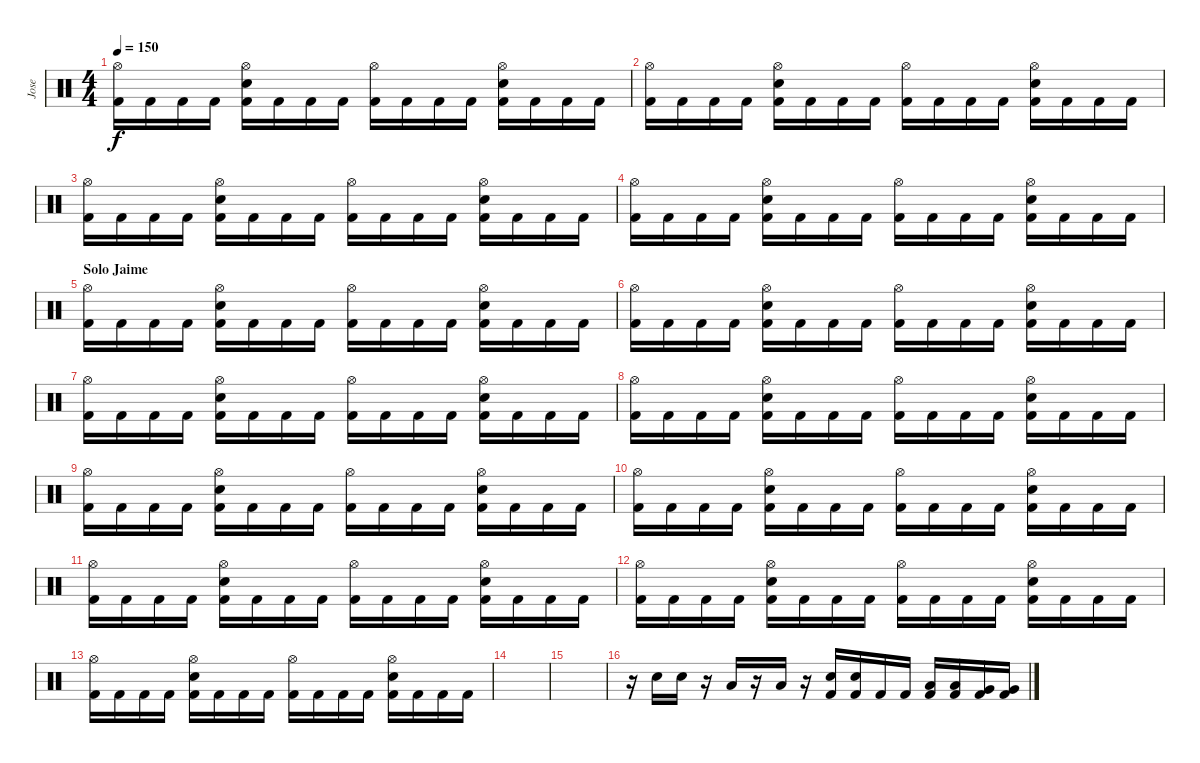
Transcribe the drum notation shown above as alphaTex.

\track ("Jose" "Jose") {instrument percussion}
\staff {score}
\articulation defaults
\ts (4 4)
\tempo 150
\clef neutral
\ks c
("Hi-Hat (open)" "Kick (hit) 2").16{dy f} "Kick (hit) 2".16 "Kick (hit) 2".16 "Kick (hit) 2".16 ("Kick (hit) 2" "Snare (hit) 2" "Hi-Hat (open)").16 "Kick (hit) 2".16 "Kick (hit) 2".16 "Kick (hit) 2".16 ("Kick (hit) 2" "Hi-Hat (open)").16 "Kick (hit) 2".16 "Kick (hit) 2".16 "Kick (hit) 2".16 ("Kick (hit) 2" "Snare (hit) 2" "Hi-Hat (open)").16 "Kick (hit) 2".16 "Kick (hit) 2".16 "Kick (hit) 2".16 |
("Hi-Hat (open)" "Kick (hit) 2").16 "Kick (hit) 2".16 "Kick (hit) 2".16 "Kick (hit) 2".16 ("Kick (hit) 2" "Snare (hit) 2" "Hi-Hat (open)").16 "Kick (hit) 2".16 "Kick (hit) 2".16 "Kick (hit) 2".16 ("Kick (hit) 2" "Hi-Hat (open)").16 "Kick (hit) 2".16 "Kick (hit) 2".16 "Kick (hit) 2".16 ("Kick (hit) 2" "Snare (hit) 2" "Hi-Hat (open)").16 "Kick (hit) 2".16 "Kick (hit) 2".16 "Kick (hit) 2".16 |
("Hi-Hat (open)" "Kick (hit) 2").16 "Kick (hit) 2".16 "Kick (hit) 2".16 "Kick (hit) 2".16 ("Kick (hit) 2" "Snare (hit) 2" "Hi-Hat (open)").16 "Kick (hit) 2".16 "Kick (hit) 2".16 "Kick (hit) 2".16 ("Kick (hit) 2" "Hi-Hat (open)").16 "Kick (hit) 2".16 "Kick (hit) 2".16 "Kick (hit) 2".16 ("Kick (hit) 2" "Snare (hit) 2" "Hi-Hat (open)").16 "Kick (hit) 2".16 "Kick (hit) 2".16 "Kick (hit) 2".16 |
("Hi-Hat (open)" "Kick (hit) 2").16 "Kick (hit) 2".16 "Kick (hit) 2".16 "Kick (hit) 2".16 ("Kick (hit) 2" "Snare (hit) 2" "Hi-Hat (open)").16 "Kick (hit) 2".16 "Kick (hit) 2".16 "Kick (hit) 2".16 ("Kick (hit) 2" "Hi-Hat (open)").16 "Kick (hit) 2".16 "Kick (hit) 2".16 "Kick (hit) 2".16 ("Kick (hit) 2" "Snare (hit) 2" "Hi-Hat (open)").16 "Kick (hit) 2".16 "Kick (hit) 2".16 "Kick (hit) 2".16 |
\section ("" "Solo Jaime")
("Hi-Hat (open)" "Kick (hit) 2").16 "Kick (hit) 2".16 "Kick (hit) 2".16 "Kick (hit) 2".16 ("Kick (hit) 2" "Snare (hit) 2" "Hi-Hat (open)").16 "Kick (hit) 2".16 "Kick (hit) 2".16 "Kick (hit) 2".16 ("Kick (hit) 2" "Hi-Hat (open)").16 "Kick (hit) 2".16 "Kick (hit) 2".16 "Kick (hit) 2".16 ("Kick (hit) 2" "Snare (hit) 2" "Hi-Hat (open)").16 "Kick (hit) 2".16 "Kick (hit) 2".16 "Kick (hit) 2".16 |
("Hi-Hat (open)" "Kick (hit) 2").16 "Kick (hit) 2".16 "Kick (hit) 2".16 "Kick (hit) 2".16 ("Kick (hit) 2" "Snare (hit) 2" "Hi-Hat (open)").16 "Kick (hit) 2".16 "Kick (hit) 2".16 "Kick (hit) 2".16 ("Kick (hit) 2" "Hi-Hat (open)").16 "Kick (hit) 2".16 "Kick (hit) 2".16 "Kick (hit) 2".16 ("Kick (hit) 2" "Snare (hit) 2" "Hi-Hat (open)").16 "Kick (hit) 2".16 "Kick (hit) 2".16 "Kick (hit) 2".16 |
("Hi-Hat (open)" "Kick (hit) 2").16 "Kick (hit) 2".16 "Kick (hit) 2".16 "Kick (hit) 2".16 ("Kick (hit) 2" "Snare (hit) 2" "Hi-Hat (open)").16 "Kick (hit) 2".16 "Kick (hit) 2".16 "Kick (hit) 2".16 ("Kick (hit) 2" "Hi-Hat (open)").16 "Kick (hit) 2".16 "Kick (hit) 2".16 "Kick (hit) 2".16 ("Kick (hit) 2" "Snare (hit) 2" "Hi-Hat (open)").16 "Kick (hit) 2".16 "Kick (hit) 2".16 "Kick (hit) 2".16 |
("Hi-Hat (open)" "Kick (hit) 2").16 "Kick (hit) 2".16 "Kick (hit) 2".16 "Kick (hit) 2".16 ("Kick (hit) 2" "Snare (hit) 2" "Hi-Hat (open)").16 "Kick (hit) 2".16 "Kick (hit) 2".16 "Kick (hit) 2".16 ("Kick (hit) 2" "Hi-Hat (open)").16 "Kick (hit) 2".16 "Kick (hit) 2".16 "Kick (hit) 2".16 ("Kick (hit) 2" "Snare (hit) 2" "Hi-Hat (open)").16 "Kick (hit) 2".16 "Kick (hit) 2".16 "Kick (hit) 2".16 |
("Hi-Hat (open)" "Kick (hit) 2").16 "Kick (hit) 2".16 "Kick (hit) 2".16 "Kick (hit) 2".16 ("Kick (hit) 2" "Snare (hit) 2" "Hi-Hat (open)").16 "Kick (hit) 2".16 "Kick (hit) 2".16 "Kick (hit) 2".16 ("Kick (hit) 2" "Hi-Hat (open)").16 "Kick (hit) 2".16 "Kick (hit) 2".16 "Kick (hit) 2".16 ("Kick (hit) 2" "Snare (hit) 2" "Hi-Hat (open)").16 "Kick (hit) 2".16 "Kick (hit) 2".16 "Kick (hit) 2".16 |
("Hi-Hat (open)" "Kick (hit) 2").16 "Kick (hit) 2".16 "Kick (hit) 2".16 "Kick (hit) 2".16 ("Kick (hit) 2" "Snare (hit) 2" "Hi-Hat (open)").16 "Kick (hit) 2".16 "Kick (hit) 2".16 "Kick (hit) 2".16 ("Kick (hit) 2" "Hi-Hat (open)").16 "Kick (hit) 2".16 "Kick (hit) 2".16 "Kick (hit) 2".16 ("Kick (hit) 2" "Snare (hit) 2" "Hi-Hat (open)").16 "Kick (hit) 2".16 "Kick (hit) 2".16 "Kick (hit) 2".16 |
("Hi-Hat (open)" "Kick (hit) 2").16 "Kick (hit) 2".16 "Kick (hit) 2".16 "Kick (hit) 2".16 ("Kick (hit) 2" "Snare (hit) 2" "Hi-Hat (open)").16 "Kick (hit) 2".16 "Kick (hit) 2".16 "Kick (hit) 2".16 ("Kick (hit) 2" "Hi-Hat (open)").16 "Kick (hit) 2".16 "Kick (hit) 2".16 "Kick (hit) 2".16 ("Kick (hit) 2" "Snare (hit) 2" "Hi-Hat (open)").16 "Kick (hit) 2".16 "Kick (hit) 2".16 "Kick (hit) 2".16 |
("Hi-Hat (open)" "Kick (hit) 2").16 "Kick (hit) 2".16 "Kick (hit) 2".16 "Kick (hit) 2".16 ("Kick (hit) 2" "Snare (hit) 2" "Hi-Hat (open)").16 "Kick (hit) 2".16 "Kick (hit) 2".16 "Kick (hit) 2".16 ("Kick (hit) 2" "Hi-Hat (open)").16 "Kick (hit) 2".16 "Kick (hit) 2".16 "Kick (hit) 2".16 ("Kick (hit) 2" "Snare (hit) 2" "Hi-Hat (open)").16 "Kick (hit) 2".16 "Kick (hit) 2".16 "Kick (hit) 2".16 |
("Hi-Hat (open)" "Kick (hit) 2").16 "Kick (hit) 2".16 "Kick (hit) 2".16 "Kick (hit) 2".16 ("Kick (hit) 2" "Snare (hit) 2" "Hi-Hat (open)").16 "Kick (hit) 2".16 "Kick (hit) 2".16 "Kick (hit) 2".16 ("Kick (hit) 2" "Hi-Hat (open)").16 "Kick (hit) 2".16 "Kick (hit) 2".16 "Kick (hit) 2".16 ("Kick (hit) 2" "Snare (hit) 2" "Hi-Hat (open)").16 "Kick (hit) 2".16 "Kick (hit) 2".16 "Kick (hit) 2".16 |
|
|
r.16 "Electric Snare (hit)".16 "Electric Snare (hit)".16 r.16 "Low Tom (hit)".16 r.16 "Low Tom (hit)".16 r.16 ("Electric Snare (hit)" "Kick (hit) 2").16 ("Electric Snare (hit)" "Kick (hit) 2").16 "Kick (hit) 2".16 "Kick (hit) 2".16 ("Low Tom (hit)" "Kick (hit) 2").16 ("Low Tom (hit)" "Kick (hit) 2").16 ("Very Low Tom (hit)" "Kick (hit) 2").16 ("Very Low Tom (hit)" "Kick (hit) 2").16
